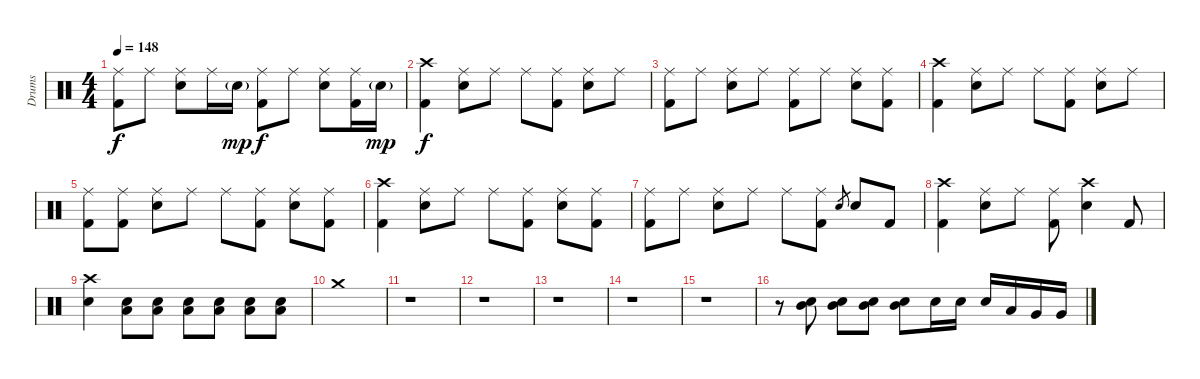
\track ("Drums" "Drums") {instrument percussion}
\staff {score}
\articulation defaults
\ts (4 4)
\tempo 148
\clef neutral
\ks c
("Ride (middle)" "Kick (hit) 2").8{dy f} "Ride (middle)".8 ("Ride (middle)" "Electric Snare (hit)").8 "Ride (middle)".16 "Electric Snare (hit)"{g}.16{dy mp} ("Ride (middle)" "Kick (hit) 2").8{dy f} "Ride (middle)".8 ("Ride (middle)" "Electric Snare (hit)").8 ("Ride (middle)" "Kick (hit) 2").16 "Electric Snare (hit)"{g}.16{dy mp} |
("Crash high (hit)" "Kick (hit) 2").4{dy f} ("Ride (middle)" "Electric Snare (hit)").8 "Ride (middle)".8 "Ride (middle)".8 ("Ride (middle)" "Kick (hit) 2").8 ("Ride (middle)" "Electric Snare (hit)").8 "Ride (middle)".8 |
("Ride (middle)" "Kick (hit) 2").8 "Ride (middle)".8 ("Ride (middle)" "Electric Snare (hit)").8 "Ride (middle)".8 ("Ride (middle)" "Kick (hit) 2").8 "Ride (middle)".8 ("Ride (middle)" "Electric Snare (hit)").8 ("Ride (middle)" "Kick (hit) 2").8 |
("Crash high (hit)" "Kick (hit) 2").4 ("Ride (middle)" "Electric Snare (hit)").8 "Ride (middle)".8 "Ride (middle)".8 ("Ride (middle)" "Kick (hit) 2").8 ("Ride (middle)" "Electric Snare (hit)").8 "Ride (middle)".8 |
("Ride (middle)" "Kick (hit) 2").8 ("Ride (middle)" "Kick (hit) 2").8 ("Ride (middle)" "Electric Snare (hit)").8 "Ride (middle)".8 "Ride (middle)".8 ("Ride (middle)" "Kick (hit) 2").8 ("Ride (middle)" "Electric Snare (hit)").8 ("Ride (middle)" "Kick (hit) 2").8 |
("Crash high (hit)" "Kick (hit) 2").4 ("Ride (middle)" "Electric Snare (hit)").8 "Ride (middle)".8 "Ride (middle)".8 ("Ride (middle)" "Kick (hit) 2").8 ("Ride (middle)" "Electric Snare (hit)").8 ("Ride (middle)" "Kick (hit) 2").8 |
("Ride (middle)" "Kick (hit) 2").8 "Ride (middle)".8 ("Ride (middle)" "Electric Snare (hit)").8 "Ride (middle)".8 "Ride (middle)".8 ("Ride (middle)" "Kick (hit) 2").8 "Electric Snare (hit)".8{gr} "Electric Snare (hit)".8 "Kick (hit) 2".8 |
("Crash high (hit)" "Kick (hit) 2").4 ("Ride (middle)" "Electric Snare (hit)").8 "Ride (middle)".8 ("Ride (middle)" "Kick (hit) 2").8 ("Crash high (hit)" "Electric Snare (hit)").4 "Kick (hit) 2".8 |
("Crash high (hit)" "Electric Snare (hit)").4 ("Low Tom (hit)" "Electric Snare (hit)").8 ("Low Tom (hit)" "Electric Snare (hit)").8 ("Low Tom (hit)" "Electric Snare (hit)").8 ("Low Tom (hit)" "Electric Snare (hit)").8 ("Low Tom (hit)" "Electric Snare (hit)").8 ("Low Tom (hit)" "Electric Snare (hit)").8 |
"Crash medium (hit)".1 |
r.1 |
r.1 |
r.1 |
r.1 |
r.1 |
r.8 ("Mid Tom (hit)" "Electric Snare (hit)").8 ("Mid Tom (hit)" "Electric Snare (hit)").8 ("Mid Tom (hit)" "Electric Snare (hit)").8 ("Mid Tom (hit)" "Electric Snare (hit)").8 "Electric Snare (hit)".16 "Electric Snare (hit)".16 "Electric Snare (hit)".16 "Low Tom (hit)".16 "Very Low Tom (hit)".16 "Very Low Tom (hit)".16
